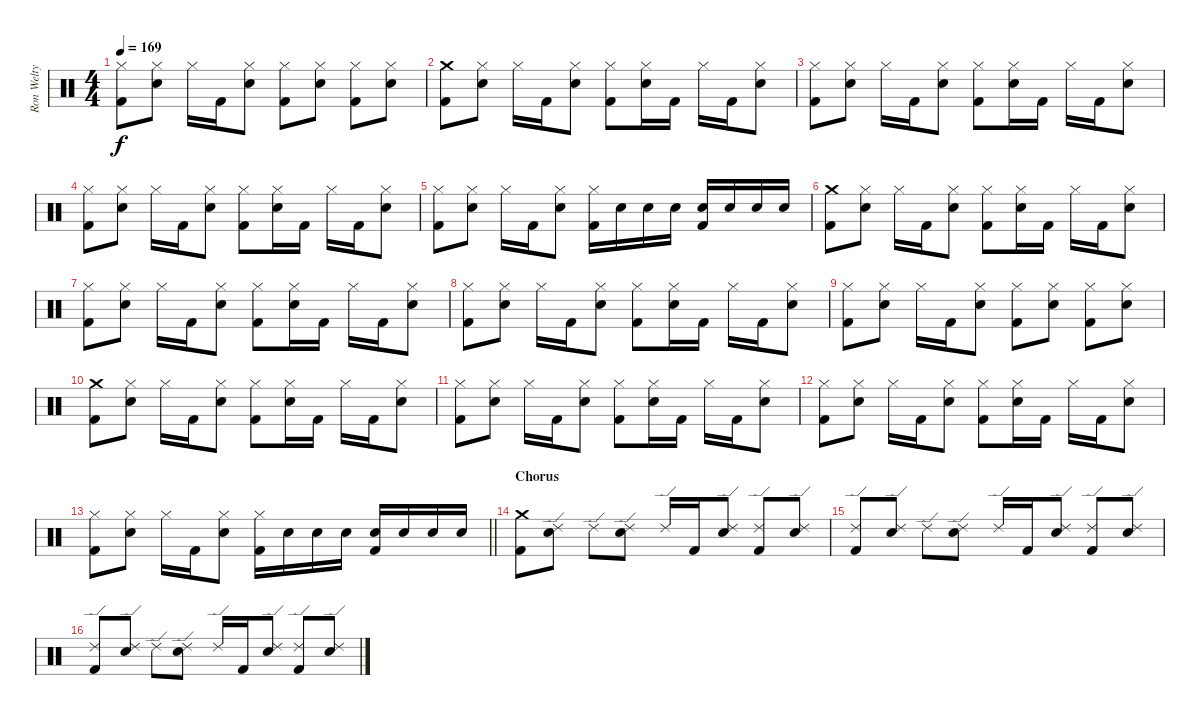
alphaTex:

\track ("Ron Welty - Drums" "Ron Welty ") {instrument percussion}
\staff {score}
\articulation defaults
\ts (4 4)
\tempo 169
\clef neutral
\ks c
("Hi-Hat (closed)" "Kick (hit) 2").8{dy f} ("Hi-Hat (closed)" "Electric Snare (hit)").8 "Hi-Hat (closed)".16 "Kick (hit) 2".16 ("Hi-Hat (closed)" "Electric Snare (hit)").8 ("Hi-Hat (closed)" "Kick (hit) 2").8 ("Hi-Hat (closed)" "Electric Snare (hit)").8 ("Hi-Hat (closed)" "Kick (hit) 2").8 ("Hi-Hat (closed)" "Electric Snare (hit)").8 |
("Crash medium (hit)" "Kick (hit) 2").8 ("Hi-Hat (closed)" "Electric Snare (hit)").8 "Hi-Hat (closed)".16 "Kick (hit) 2".16 ("Hi-Hat (closed)" "Electric Snare (hit)").8 ("Hi-Hat (closed)" "Kick (hit) 2").8 ("Hi-Hat (closed)" "Electric Snare (hit)").16 "Kick (hit) 2".16 "Hi-Hat (closed)".16 "Kick (hit) 2".16 ("Hi-Hat (closed)" "Electric Snare (hit)").8 |
("Hi-Hat (closed)" "Kick (hit) 2").8 ("Hi-Hat (closed)" "Electric Snare (hit)").8 "Hi-Hat (closed)".16 "Kick (hit) 2".16 ("Hi-Hat (closed)" "Electric Snare (hit)").8 ("Hi-Hat (closed)" "Kick (hit) 2").8 ("Hi-Hat (closed)" "Electric Snare (hit)").16 "Kick (hit) 2".16 "Hi-Hat (closed)".16 "Kick (hit) 2".16 ("Hi-Hat (closed)" "Electric Snare (hit)").8 |
("Hi-Hat (closed)" "Kick (hit) 2").8 ("Hi-Hat (closed)" "Electric Snare (hit)").8 "Hi-Hat (closed)".16 "Kick (hit) 2".16 ("Hi-Hat (closed)" "Electric Snare (hit)").8 ("Hi-Hat (closed)" "Kick (hit) 2").8 ("Hi-Hat (closed)" "Electric Snare (hit)").16 "Kick (hit) 2".16 "Hi-Hat (closed)".16 "Kick (hit) 2".16 ("Hi-Hat (closed)" "Electric Snare (hit)").8 |
("Hi-Hat (closed)" "Kick (hit) 2").8 ("Hi-Hat (closed)" "Electric Snare (hit)").8 "Hi-Hat (closed)".16 "Kick (hit) 2".16 ("Hi-Hat (closed)" "Electric Snare (hit)").8 ("Hi-Hat (closed)" "Kick (hit) 2").16 "Electric Snare (hit)".16 "Electric Snare (hit)".16 "Electric Snare (hit)".16 ("Electric Snare (hit)" "Kick (hit) 2").16 "Electric Snare (hit)".16 "Electric Snare (hit)".16 "Electric Snare (hit)".16 |
("Crash medium (hit)" "Kick (hit) 2").8 ("Hi-Hat (closed)" "Electric Snare (hit)").8 "Hi-Hat (closed)".16 "Kick (hit) 2".16 ("Hi-Hat (closed)" "Electric Snare (hit)").8 ("Hi-Hat (closed)" "Kick (hit) 2").8 ("Hi-Hat (closed)" "Electric Snare (hit)").16 "Kick (hit) 2".16 "Hi-Hat (closed)".16 "Kick (hit) 2".16 ("Hi-Hat (closed)" "Electric Snare (hit)").8 |
("Hi-Hat (closed)" "Kick (hit) 2").8 ("Hi-Hat (closed)" "Electric Snare (hit)").8 "Hi-Hat (closed)".16 "Kick (hit) 2".16 ("Hi-Hat (closed)" "Electric Snare (hit)").8 ("Hi-Hat (closed)" "Kick (hit) 2").8 ("Hi-Hat (closed)" "Electric Snare (hit)").16 "Kick (hit) 2".16 "Hi-Hat (closed)".16 "Kick (hit) 2".16 ("Hi-Hat (closed)" "Electric Snare (hit)").8 |
("Hi-Hat (closed)" "Kick (hit) 2").8 ("Hi-Hat (closed)" "Electric Snare (hit)").8 "Hi-Hat (closed)".16 "Kick (hit) 2".16 ("Hi-Hat (closed)" "Electric Snare (hit)").8 ("Hi-Hat (closed)" "Kick (hit) 2").8 ("Hi-Hat (closed)" "Electric Snare (hit)").16 "Kick (hit) 2".16 "Hi-Hat (closed)".16 "Kick (hit) 2".16 ("Hi-Hat (closed)" "Electric Snare (hit)").8 |
("Hi-Hat (closed)" "Kick (hit) 2").8 ("Hi-Hat (closed)" "Electric Snare (hit)").8 "Hi-Hat (closed)".16 "Kick (hit) 2".16 ("Hi-Hat (closed)" "Electric Snare (hit)").8 ("Hi-Hat (closed)" "Kick (hit) 2").8 ("Hi-Hat (closed)" "Electric Snare (hit)").8 ("Hi-Hat (closed)" "Kick (hit) 2").8 ("Hi-Hat (closed)" "Electric Snare (hit)").8 |
("Crash medium (hit)" "Kick (hit) 2").8 ("Hi-Hat (closed)" "Electric Snare (hit)").8 "Hi-Hat (closed)".16 "Kick (hit) 2".16 ("Hi-Hat (closed)" "Electric Snare (hit)").8 ("Hi-Hat (closed)" "Kick (hit) 2").8 ("Hi-Hat (closed)" "Electric Snare (hit)").16 "Kick (hit) 2".16 "Hi-Hat (closed)".16 "Kick (hit) 2".16 ("Hi-Hat (closed)" "Electric Snare (hit)").8 |
("Hi-Hat (closed)" "Kick (hit) 2").8 ("Hi-Hat (closed)" "Electric Snare (hit)").8 "Hi-Hat (closed)".16 "Kick (hit) 2".16 ("Hi-Hat (closed)" "Electric Snare (hit)").8 ("Hi-Hat (closed)" "Kick (hit) 2").8 ("Hi-Hat (closed)" "Electric Snare (hit)").16 "Kick (hit) 2".16 "Hi-Hat (closed)".16 "Kick (hit) 2".16 ("Hi-Hat (closed)" "Electric Snare (hit)").8 |
("Hi-Hat (closed)" "Kick (hit) 2").8 ("Hi-Hat (closed)" "Electric Snare (hit)").8 "Hi-Hat (closed)".16 "Kick (hit) 2".16 ("Hi-Hat (closed)" "Electric Snare (hit)").8 ("Hi-Hat (closed)" "Kick (hit) 2").8 ("Hi-Hat (closed)" "Electric Snare (hit)").16 "Kick (hit) 2".16 "Hi-Hat (closed)".16 "Kick (hit) 2".16 ("Hi-Hat (closed)" "Electric Snare (hit)").8 |
\barLineRight lightlight
("Hi-Hat (closed)" "Kick (hit) 2").8 ("Hi-Hat (closed)" "Electric Snare (hit)").8 "Hi-Hat (closed)".16 "Kick (hit) 2".16 ("Hi-Hat (closed)" "Electric Snare (hit)").8 ("Hi-Hat (closed)" "Kick (hit) 2").16 "Electric Snare (hit)".16 "Electric Snare (hit)".16 "Electric Snare (hit)".16 ("Electric Snare (hit)" "Kick (hit) 2").16 "Electric Snare (hit)".16 "Electric Snare (hit)".16 "Electric Snare (hit)".16 |
\section ("" "Chorus")
("Crash medium (hit)" "Kick (hit) 2").8 ("Ride (edge) 2" "Electric Snare (hit)").8 "Ride (edge) 2".8 ("Ride (edge) 2" "Electric Snare (hit)").8 "Ride (edge) 2".16 "Kick (hit) 2".16 ("Ride (edge) 2" "Electric Snare (hit)").8 ("Ride (edge) 2" "Kick (hit) 2").8 ("Ride (edge) 2" "Electric Snare (hit)").8 |
("Ride (edge) 2" "Kick (hit) 2").8 ("Ride (edge) 2" "Electric Snare (hit)").8 "Ride (edge) 2".8 ("Ride (edge) 2" "Electric Snare (hit)").8 "Ride (edge) 2".16 "Kick (hit) 2".16 ("Ride (edge) 2" "Electric Snare (hit)").8 ("Ride (edge) 2" "Kick (hit) 2").8 ("Ride (edge) 2" "Electric Snare (hit)").8 |
("Ride (edge) 2" "Kick (hit) 2").8 ("Ride (edge) 2" "Electric Snare (hit)").8 "Ride (edge) 2".8 ("Ride (edge) 2" "Electric Snare (hit)").8 "Ride (edge) 2".16 "Kick (hit) 2".16 ("Ride (edge) 2" "Electric Snare (hit)").8 ("Ride (edge) 2" "Kick (hit) 2").8 ("Ride (edge) 2" "Electric Snare (hit)").8
